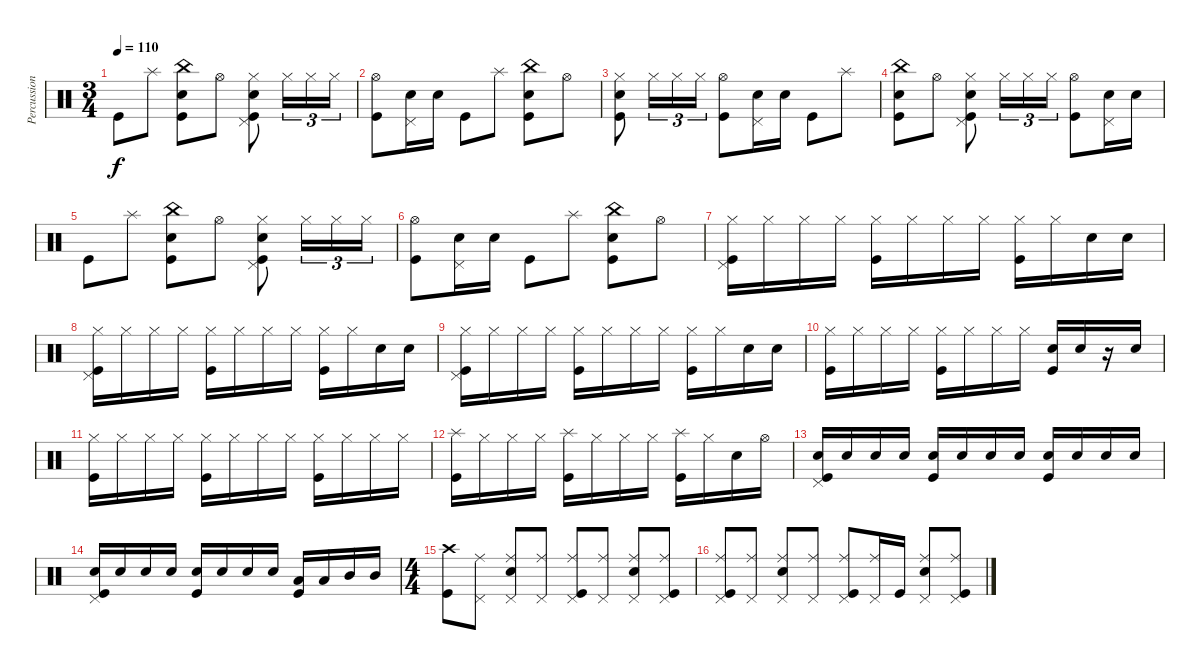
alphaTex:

\track ("Percussion" "Percussion") {instrument percussion}
\staff {score}
\articulation defaults
\ts (3 4)
\tempo 110
\clef neutral
\ks c "Kick (hit)".8{dy f} "Splash (hit)".8
("Electric Snare (hit)" "Kick (hit)" "China (hit)").8 "Hi-Hat (open)".8 ("Pedal Hi-Hat (hit)" "Hi-Hat (closed)" "Electric Snare (hit)" "Kick (hit)").8 "Hi-Hat (closed)".16{tu (3 2)} "Hi-Hat (closed)".16{tu (3 2)} "Hi-Hat (closed)".16{tu (3 2)} |
("Kick (hit)" "Hi-Hat (open)").8 ("Snare (hit) 2" "Pedal Hi-Hat (hit)").16 "Snare (hit) 2".16 "Kick (hit)".8 "Splash (hit)".8 ("Electric Snare (hit)" "Kick (hit)" "China (hit)").8 "Hi-Hat (open)".8 |
("Hi-Hat (closed)" "Electric Snare (hit)" "Kick (hit)").8 "Hi-Hat (closed)".16{tu (3 2)} "Hi-Hat (closed)".16{tu (3 2)} "Hi-Hat (closed)".16{tu (3 2)} ("Kick (hit)" "Hi-Hat (open)").8 ("Snare (hit) 2" "Pedal Hi-Hat (hit)").16 "Snare (hit) 2".16 "Kick (hit)".8 "Splash (hit)".8 |
("Electric Snare (hit)" "Kick (hit)" "China (hit)").8 "Hi-Hat (open)".8 ("Pedal Hi-Hat (hit)" "Hi-Hat (closed)" "Electric Snare (hit)" "Kick (hit)").8 "Hi-Hat (closed)".16{tu (3 2)} "Hi-Hat (closed)".16{tu (3 2)} "Hi-Hat (closed)".16{tu (3 2)} ("Kick (hit)" "Hi-Hat (open)").8 ("Snare (hit) 2" "Pedal Hi-Hat (hit)").16 "Snare (hit) 2".16 |
"Kick (hit)".8 "Splash (hit)".8 ("Electric Snare (hit)" "Kick (hit)" "China (hit)").8 "Hi-Hat (open)".8 ("Pedal Hi-Hat (hit)" "Hi-Hat (closed)" "Electric Snare (hit)" "Kick (hit)").8 "Hi-Hat (closed)".16{tu (3 2)} "Hi-Hat (closed)".16{tu (3 2)} "Hi-Hat (closed)".16{tu (3 2)} |
("Kick (hit)" "Hi-Hat (open)").8 ("Snare (hit) 2" "Pedal Hi-Hat (hit)").16 "Snare (hit) 2".16 "Kick (hit)".8 "Splash (hit)".8 ("Electric Snare (hit)" "Kick (hit)" "China (hit)").8 "Hi-Hat (open)".8 |
("Hi-Hat (closed)" "Kick (hit)" "Pedal Hi-Hat (hit)").16 "Hi-Hat (closed)".16 "Hi-Hat (closed)".16 "Hi-Hat (closed)".16 ("Hi-Hat (closed)" "Kick (hit)").16 "Hi-Hat (closed)".16 "Hi-Hat (closed)".16 "Hi-Hat (closed)".16 ("Hi-Hat (closed)" "Kick (hit)").16 "Hi-Hat (closed)".16 "Snare (hit) 2".16 "Snare (hit) 2".16 |
("Hi-Hat (closed)" "Kick (hit)" "Pedal Hi-Hat (hit)").16 "Hi-Hat (closed)".16 "Hi-Hat (closed)".16 "Hi-Hat (closed)".16 ("Hi-Hat (closed)" "Kick (hit)").16 "Hi-Hat (closed)".16 "Hi-Hat (closed)".16 "Hi-Hat (closed)".16 ("Hi-Hat (closed)" "Kick (hit)").16 "Hi-Hat (closed)".16 "Snare (hit) 2".16 "Snare (hit) 2".16 |
("Hi-Hat (closed)" "Kick (hit)" "Pedal Hi-Hat (hit)").16 "Hi-Hat (closed)".16 "Hi-Hat (closed)".16 "Hi-Hat (closed)".16 ("Hi-Hat (closed)" "Kick (hit)").16 "Hi-Hat (closed)".16 "Hi-Hat (closed)".16 "Hi-Hat (closed)".16 ("Hi-Hat (closed)" "Kick (hit)").16 "Hi-Hat (closed)".16 "Snare (hit) 2".16 "Snare (hit) 2".16 |
("Hi-Hat (closed)" "Kick (hit)").16 "Hi-Hat (closed)".16 "Hi-Hat (closed)".16 "Hi-Hat (closed)".16 ("Hi-Hat (closed)" "Kick (hit)").16 "Hi-Hat (closed)".16 "Hi-Hat (closed)".16 "Hi-Hat (closed)".16 ("Snare (hit) 2" "Kick (hit)").16 "Snare (hit) 2".16 r.16 "Snare (hit) 2".16 |
("Hi-Hat (closed)" "Kick (hit)").16 "Hi-Hat (closed)".16 "Hi-Hat (closed)".16 "Hi-Hat (closed)".16 ("Hi-Hat (closed)" "Kick (hit)").16 "Hi-Hat (closed)".16 "Hi-Hat (closed)".16 "Hi-Hat (closed)".16 ("Hi-Hat (closed)" "Kick (hit)").16 "Hi-Hat (closed)".16 "Hi-Hat (closed)".16 "Hi-Hat (closed)".16 |
("Splash (hit)" "Kick (hit)").16 "Hi-Hat (closed)".16 "Hi-Hat (closed)".16 "Hi-Hat (closed)".16 ("Splash (hit)" "Kick (hit)").16 "Hi-Hat (closed)".16 "Hi-Hat (closed)".16 "Hi-Hat (closed)".16 ("Splash (hit)" "Kick (hit)").16 "Hi-Hat (closed)".16 "Snare (hit) 2".16 "Hi-Hat (open)".16 |
("Snare (hit) 2" "Kick (hit)" "Pedal Hi-Hat (hit)").16 "Snare (hit) 2".16 "Snare (hit) 2".16 "Snare (hit) 2".16 ("Snare (hit) 2" "Kick (hit)").16 "Snare (hit) 2".16 "Snare (hit) 2".16 "Snare (hit) 2".16 ("Snare (hit) 2" "Kick (hit)").16 "Snare (hit) 2".16 "Snare (hit) 2".16 "Snare (hit) 2".16 |
("Snare (hit) 2" "Kick (hit)" "Pedal Hi-Hat (hit)").16 "Snare (hit) 2".16 "Snare (hit) 2".16 "Snare (hit) 2".16 ("Snare (hit) 2" "Kick (hit)").16 "Snare (hit) 2".16 "Snare (hit) 2".16 "Snare (hit) 2".16 ("Low Tom (hit)" "Kick (hit)").16 "Low Tom (hit)".16 "Mid Tom (hit)".16 "Mid Tom (hit)".16 |
\ts (4 4)
("Crash high (hit)" "Kick (hit)").8 ("Pedal Hi-Hat (hit)" "Ride (middle)").8 ("Pedal Hi-Hat (hit)" "Ride (middle)" "Snare (hit) 2").8 ("Pedal Hi-Hat (hit)" "Ride (middle)").8 ("Pedal Hi-Hat (hit)" "Ride (middle)" "Kick (hit)").8 ("Pedal Hi-Hat (hit)" "Ride (middle)").8 ("Pedal Hi-Hat (hit)" "Ride (middle)" "Snare (hit) 2").8 ("Pedal Hi-Hat (hit)" "Ride (middle)" "Kick (hit)").8 |
("Pedal Hi-Hat (hit)" "Ride (middle)" "Kick (hit)").8 ("Pedal Hi-Hat (hit)" "Ride (middle)").8 ("Pedal Hi-Hat (hit)" "Ride (middle)" "Snare (hit) 2").8 ("Pedal Hi-Hat (hit)" "Ride (middle)").8 ("Pedal Hi-Hat (hit)" "Ride (middle)" "Kick (hit)").8 ("Pedal Hi-Hat (hit)" "Ride (middle)").16 "Kick (hit)".16 ("Pedal Hi-Hat (hit)" "Ride (middle)" "Snare (hit) 2").8 ("Pedal Hi-Hat (hit)" "Ride (middle)" "Kick (hit)").8
